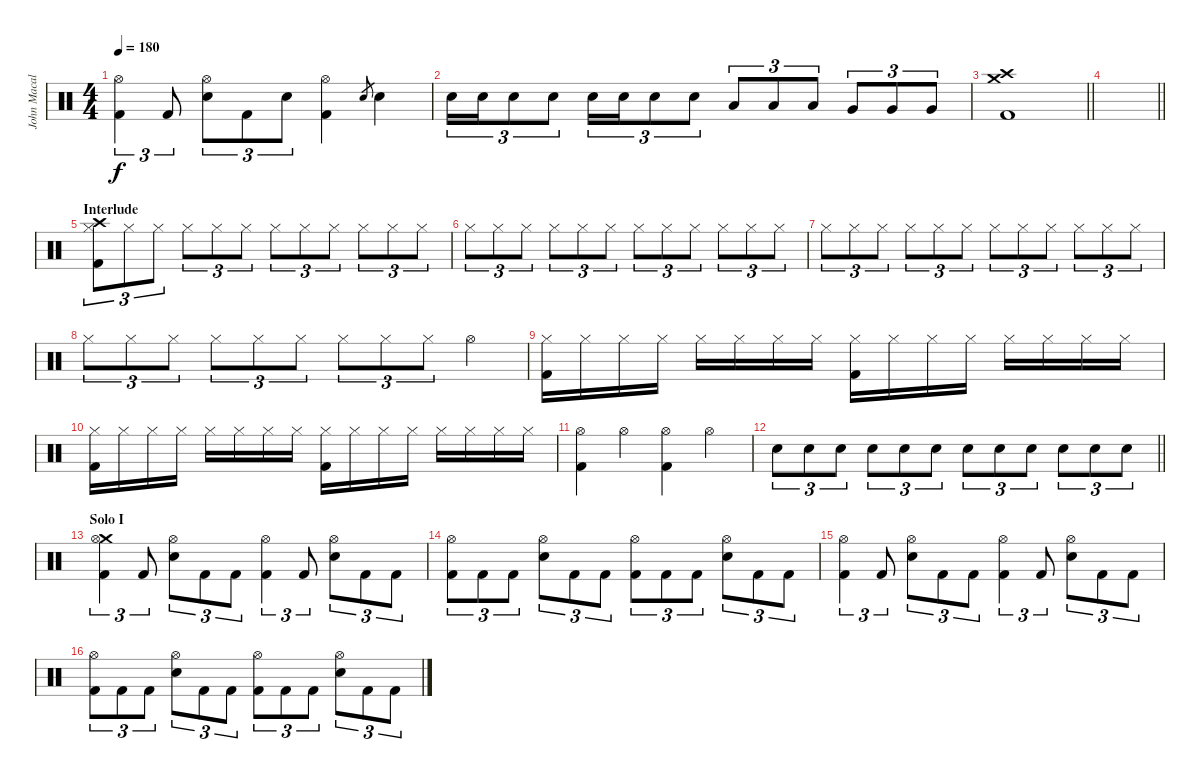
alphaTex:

\track ("John Macaluso" "John Macal") {instrument percussion}
\staff {score}
\articulation defaults
\ts (4 4)
\tempo 180
\clef neutral
\ks c
("Hi-Hat (open)" "Kick (hit) 2").4{tu (3 2) dy f} "Kick (hit) 2".8{tu (3 2)} ("Hi-Hat (open)" "Snare (hit) 2").8{tu (3 2)} "Kick (hit) 2".8{tu (3 2)} "Snare (hit) 2".8{tu (3 2)} ("Hi-Hat (open)" "Kick (hit) 2").4 "Snare (hit) 2".8{gr} "Snare (hit) 2".4 |
"Snare (hit) 2".16{tu (3 2)} "Snare (hit) 2".16{tu (3 2)} "Snare (hit) 2".8{tu (3 2)} "Snare (hit) 2".8{tu (3 2)} "Snare (hit) 2".16{tu (3 2)} "Snare (hit) 2".16{tu (3 2)} "Snare (hit) 2".8{tu (3 2)} "Snare (hit) 2".8{tu (3 2)} "Low Tom (hit)".8{tu (3 2)} "Low Tom (hit)".8{tu (3 2)} "Low Tom (hit)".8{tu (3 2)} "Very Low Tom (hit)".8{tu (3 2)} "Very Low Tom (hit)".8{tu (3 2)} "Very Low Tom (hit)".8{tu (3 2)} |
\barLineRight lightlight
("Crash medium (hit)" "Crash high (hit)" "Kick (hit) 2").1 |
\barLineRight lightlight
|
\section ("" "Interlude")
("Crash high (hit)" "Hi-Hat (closed)" "Kick (hit) 2").8{tu (3 2)} "Hi-Hat (closed)".8{tu (3 2)} "Hi-Hat (closed)".8{tu (3 2)} "Hi-Hat (closed)".8{tu (3 2)} "Hi-Hat (closed)".8{tu (3 2)} "Hi-Hat (closed)".8{tu (3 2)} "Hi-Hat (closed)".8{tu (3 2)} "Hi-Hat (closed)".8{tu (3 2)} "Hi-Hat (closed)".8{tu (3 2)} "Hi-Hat (closed)".8{tu (3 2)} "Hi-Hat (closed)".8{tu (3 2)} "Hi-Hat (closed)".8{tu (3 2)} |
"Hi-Hat (closed)".8{tu (3 2)} "Hi-Hat (closed)".8{tu (3 2)} "Hi-Hat (closed)".8{tu (3 2)} "Hi-Hat (closed)".8{tu (3 2)} "Hi-Hat (closed)".8{tu (3 2)} "Hi-Hat (closed)".8{tu (3 2)} "Hi-Hat (closed)".8{tu (3 2)} "Hi-Hat (closed)".8{tu (3 2)} "Hi-Hat (closed)".8{tu (3 2)} "Hi-Hat (closed)".8{tu (3 2)} "Hi-Hat (closed)".8{tu (3 2)} "Hi-Hat (closed)".8{tu (3 2)} |
"Hi-Hat (closed)".8{tu (3 2)} "Hi-Hat (closed)".8{tu (3 2)} "Hi-Hat (closed)".8{tu (3 2)} "Hi-Hat (closed)".8{tu (3 2)} "Hi-Hat (closed)".8{tu (3 2)} "Hi-Hat (closed)".8{tu (3 2)} "Hi-Hat (closed)".8{tu (3 2)} "Hi-Hat (closed)".8{tu (3 2)} "Hi-Hat (closed)".8{tu (3 2)} "Hi-Hat (closed)".8{tu (3 2)} "Hi-Hat (closed)".8{tu (3 2)} "Hi-Hat (closed)".8{tu (3 2)} |
"Hi-Hat (closed)".8{tu (3 2)} "Hi-Hat (closed)".8{tu (3 2)} "Hi-Hat (closed)".8{tu (3 2)} "Hi-Hat (closed)".8{tu (3 2)} "Hi-Hat (closed)".8{tu (3 2)} "Hi-Hat (closed)".8{tu (3 2)} "Hi-Hat (closed)".8{tu (3 2)} "Hi-Hat (closed)".8{tu (3 2)} "Hi-Hat (closed)".8{tu (3 2)} "Hi-Hat (open)".4 |
("Hi-Hat (closed)" "Kick (hit) 2").16 "Hi-Hat (closed)".16 "Hi-Hat (closed)".16 "Hi-Hat (closed)".16 "Hi-Hat (closed)".16 "Hi-Hat (closed)".16 "Hi-Hat (closed)".16 "Hi-Hat (closed)".16 ("Hi-Hat (closed)" "Kick (hit) 2").16 "Hi-Hat (closed)".16 "Hi-Hat (closed)".16 "Hi-Hat (closed)".16 "Hi-Hat (closed)".16 "Hi-Hat (closed)".16 "Hi-Hat (closed)".16 "Hi-Hat (closed)".16 |
("Hi-Hat (closed)" "Kick (hit) 2").16 "Hi-Hat (closed)".16 "Hi-Hat (closed)".16 "Hi-Hat (closed)".16 "Hi-Hat (closed)".16 "Hi-Hat (closed)".16 "Hi-Hat (closed)".16 "Hi-Hat (closed)".16 ("Hi-Hat (closed)" "Kick (hit) 2").16 "Hi-Hat (closed)".16 "Hi-Hat (closed)".16 "Hi-Hat (closed)".16 "Hi-Hat (closed)".16 "Hi-Hat (closed)".16 "Hi-Hat (closed)".16 "Hi-Hat (closed)".16 |
("Hi-Hat (open)" "Kick (hit) 2").4 "Hi-Hat (open)".4 ("Hi-Hat (open)" "Kick (hit) 2").4 "Hi-Hat (open)".4 |
\barLineRight lightlight "Snare (hit) 2".8{tu (3 2)} "Snare (hit) 2".8{tu (3 2)} "Snare (hit) 2".8{tu (3 2)} "Snare (hit) 2".8{tu (3 2)} "Snare (hit) 2".8{tu (3 2)} "Snare (hit) 2".8{tu (3 2)} "Snare (hit) 2".8{tu (3 2)} "Snare (hit) 2".8{tu (3 2)} "Snare (hit) 2".8{tu (3 2)} "Snare (hit) 2".8{tu (3 2)} "Snare (hit) 2".8{tu (3 2)} "Snare (hit) 2".8{tu (3 2)}
|
\section ("" "Solo I")
("Crash medium (hit)" "Hi-Hat (open)" "Kick (hit) 2").4{tu (3 2)} "Kick (hit) 2".8{tu (3 2)} ("Hi-Hat (open)" "Snare (hit) 2").8{tu (3 2)} "Kick (hit) 2".8{tu (3 2)} "Kick (hit) 2".8{tu (3 2)} ("Hi-Hat (open)" "Kick (hit) 2").4{tu (3 2)} "Kick (hit) 2".8{tu (3 2)} ("Hi-Hat (open)" "Snare (hit) 2").8{tu (3 2)} "Kick (hit) 2".8{tu (3 2)} "Kick (hit) 2".8{tu (3 2)} |
("Hi-Hat (open)" "Kick (hit) 2").8{tu (3 2)} "Kick (hit) 2".8{tu (3 2)} "Kick (hit) 2".8{tu (3 2)} ("Hi-Hat (open)" "Snare (hit) 2").8{tu (3 2)} "Kick (hit) 2".8{tu (3 2)} "Kick (hit) 2".8{tu (3 2)} ("Hi-Hat (open)" "Kick (hit) 2").8{tu (3 2)} "Kick (hit) 2".8{tu (3 2)} "Kick (hit) 2".8{tu (3 2)} ("Hi-Hat (open)" "Snare (hit) 2").8{tu (3 2)} "Kick (hit) 2".8{tu (3 2)} "Kick (hit) 2".8{tu (3 2)} |
("Hi-Hat (open)" "Kick (hit) 2").4{tu (3 2)} "Kick (hit) 2".8{tu (3 2)} ("Hi-Hat (open)" "Snare (hit) 2").8{tu (3 2)} "Kick (hit) 2".8{tu (3 2)} "Kick (hit) 2".8{tu (3 2)} ("Hi-Hat (open)" "Kick (hit) 2").4{tu (3 2)} "Kick (hit) 2".8{tu (3 2)} ("Hi-Hat (open)" "Snare (hit) 2").8{tu (3 2)} "Kick (hit) 2".8{tu (3 2)} "Kick (hit) 2".8{tu (3 2)} |
("Hi-Hat (open)" "Kick (hit) 2").8{tu (3 2)} "Kick (hit) 2".8{tu (3 2)} "Kick (hit) 2".8{tu (3 2)} ("Hi-Hat (open)" "Snare (hit) 2").8{tu (3 2)} "Kick (hit) 2".8{tu (3 2)} "Kick (hit) 2".8{tu (3 2)} ("Hi-Hat (open)" "Kick (hit) 2").8{tu (3 2)} "Kick (hit) 2".8{tu (3 2)} "Kick (hit) 2".8{tu (3 2)} ("Hi-Hat (open)" "Snare (hit) 2").8{tu (3 2)} "Kick (hit) 2".8{tu (3 2)} "Kick (hit) 2".8{tu (3 2)}
